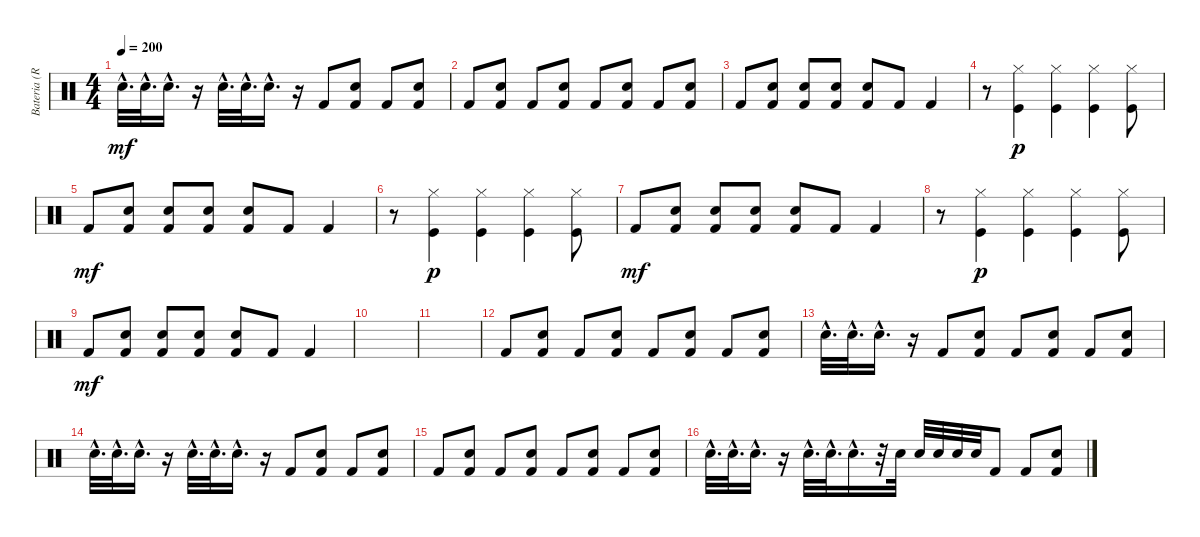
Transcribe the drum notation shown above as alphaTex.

\track ("Bateria (Ray)" "Bateria (R") {instrument percussion}
\staff {score}
\articulation defaults
\ts (4 4)
\tempo 200
\clef neutral
\ks c "Electric Snare (hit)"{hac}.32{d dy mf} "Electric Snare (hit)"{hac}.32{d} "Electric Snare (hit)"{hac}.16{d}
r.16 "Electric Snare (hit)"{hac}.32{d} "Electric Snare (hit)"{hac}.32{d} "Electric Snare (hit)"{hac}.16{d} r.16 "Kick (hit) 2".8 ("Electric Snare (hit)" "Kick (hit) 2").8 "Kick (hit) 2".8 ("Electric Snare (hit)" "Kick (hit) 2").8 |
"Kick (hit) 2".8 ("Electric Snare (hit)" "Kick (hit) 2").8 "Kick (hit) 2".8 ("Electric Snare (hit)" "Kick (hit) 2").8 "Kick (hit) 2".8 ("Electric Snare (hit)" "Kick (hit) 2").8 "Kick (hit) 2".8 ("Electric Snare (hit)" "Kick (hit) 2").8 |
"Kick (hit) 2".8 ("Electric Snare (hit)" "Kick (hit) 2").8 ("Electric Snare (hit)" "Kick (hit) 2").8 ("Electric Snare (hit)" "Kick (hit) 2").8 ("Electric Snare (hit)" "Kick (hit) 2").8 "Kick (hit) 2".8 "Kick (hit) 2".4 |
r.8 ("Kick (hit)" "Hi-Hat (closed)").4{dy p} ("Kick (hit)" "Hi-Hat (closed)").4 ("Kick (hit)" "Hi-Hat (closed)").4 ("Kick (hit)" "Hi-Hat (closed)").8 |
"Kick (hit) 2".8{dy mf} ("Electric Snare (hit)" "Kick (hit) 2").8 ("Electric Snare (hit)" "Kick (hit) 2").8 ("Electric Snare (hit)" "Kick (hit) 2").8 ("Electric Snare (hit)" "Kick (hit) 2").8 "Kick (hit) 2".8 "Kick (hit) 2".4 |
r.8 ("Kick (hit)" "Hi-Hat (closed)").4{dy p} ("Kick (hit)" "Hi-Hat (closed)").4 ("Kick (hit)" "Hi-Hat (closed)").4 ("Kick (hit)" "Hi-Hat (closed)").8 |
"Kick (hit) 2".8{dy mf} ("Electric Snare (hit)" "Kick (hit) 2").8 ("Electric Snare (hit)" "Kick (hit) 2").8 ("Electric Snare (hit)" "Kick (hit) 2").8 ("Electric Snare (hit)" "Kick (hit) 2").8 "Kick (hit) 2".8 "Kick (hit) 2".4 |
r.8 ("Kick (hit)" "Hi-Hat (closed)").4{dy p} ("Kick (hit)" "Hi-Hat (closed)").4 ("Kick (hit)" "Hi-Hat (closed)").4 ("Kick (hit)" "Hi-Hat (closed)").8 |
"Kick (hit) 2".8{dy mf} ("Electric Snare (hit)" "Kick (hit) 2").8 ("Electric Snare (hit)" "Kick (hit) 2").8 ("Electric Snare (hit)" "Kick (hit) 2").8 ("Electric Snare (hit)" "Kick (hit) 2").8 "Kick (hit) 2".8 "Kick (hit) 2".4 |
|
|
"Kick (hit) 2".8 ("Electric Snare (hit)" "Kick (hit) 2").8 "Kick (hit) 2".8 ("Electric Snare (hit)" "Kick (hit) 2").8 "Kick (hit) 2".8 ("Electric Snare (hit)" "Kick (hit) 2").8 "Kick (hit) 2".8 ("Electric Snare (hit)" "Kick (hit) 2").8 |
"Electric Snare (hit)"{hac}.32{d} "Electric Snare (hit)"{hac}.32{d} "Electric Snare (hit)"{hac}.16{d} r.16 "Kick (hit) 2".8 ("Electric Snare (hit)" "Kick (hit) 2").8 "Kick (hit) 2".8 ("Electric Snare (hit)" "Kick (hit) 2").8 "Kick (hit) 2".8 ("Electric Snare (hit)" "Kick (hit) 2").8 |
"Electric Snare (hit)"{hac}.32{d} "Electric Snare (hit)"{hac}.32{d} "Electric Snare (hit)"{hac}.16{d} r.16 "Electric Snare (hit)"{hac}.32{d} "Electric Snare (hit)"{hac}.32{d} "Electric Snare (hit)"{hac}.16{d} r.16 "Kick (hit) 2".8 ("Electric Snare (hit)" "Kick (hit) 2").8 "Kick (hit) 2".8 ("Electric Snare (hit)" "Kick (hit) 2").8 |
"Kick (hit) 2".8 ("Electric Snare (hit)" "Kick (hit) 2").8 "Kick (hit) 2".8 ("Electric Snare (hit)" "Kick (hit) 2").8 "Kick (hit) 2".8 ("Electric Snare (hit)" "Kick (hit) 2").8 "Kick (hit) 2".8 ("Electric Snare (hit)" "Kick (hit) 2").8 |
"Electric Snare (hit)"{hac}.32{d} "Electric Snare (hit)"{hac}.32{d} "Electric Snare (hit)"{hac}.16{d} r.16 "Electric Snare (hit)"{hac}.32{d} "Electric Snare (hit)"{hac}.32{d} "Electric Snare (hit)"{hac}.16{d} r.32 "Electric Snare (hit)".32 "Electric Snare (hit)".32 "Electric Snare (hit)".32 "Electric Snare (hit)".32 "Electric Snare (hit)".32 "Kick (hit) 2".8 "Kick (hit) 2".8 ("Electric Snare (hit)" "Kick (hit) 2").8
